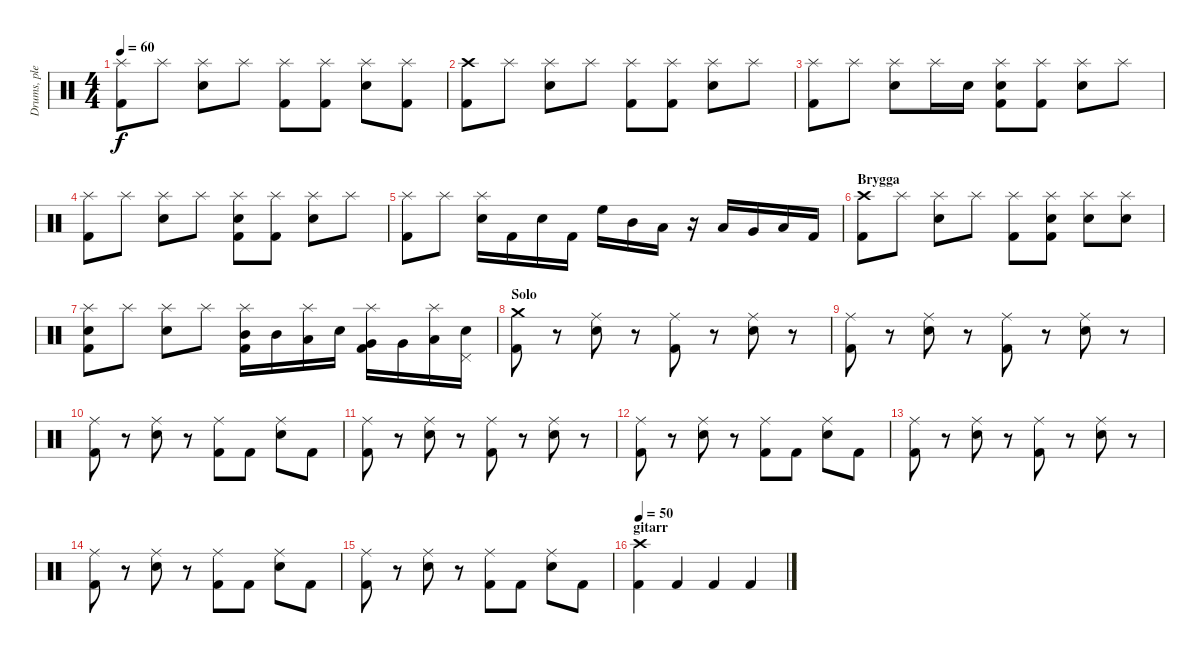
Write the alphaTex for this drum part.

\track ("Drums, please" "Drums, ple") {instrument percussion}
\staff {score}
\articulation defaults
\ts (4 4)
\tempo 60
\clef neutral
\ks c
("Kick (hit) 2" "Splash (hit)").8{dy f} "Splash (hit)".8 ("Electric Snare (hit)" "Splash (hit)").8 "Splash (hit)".8 ("Kick (hit) 2" "Splash (hit)").8 ("Kick (hit) 2" "Splash (hit)").8 ("Electric Snare (hit)" "Splash (hit)").8 ("Kick (hit) 2" "Splash (hit)").8 |
("Kick (hit) 2" "Crash high (hit)").8 "Splash (hit)".8 ("Electric Snare (hit)" "Splash (hit)").8 "Splash (hit)".8 ("Kick (hit) 2" "Splash (hit)").8 ("Kick (hit) 2" "Splash (hit)").8 ("Electric Snare (hit)" "Splash (hit)").8 "Splash (hit)".8 |
("Kick (hit) 2" "Splash (hit)").8 "Splash (hit)".8 ("Electric Snare (hit)" "Splash (hit)").8 "Splash (hit)".16 "Electric Snare (hit)".16 ("Kick (hit) 2" "Electric Snare (hit)" "Splash (hit)").8 ("Kick (hit) 2" "Splash (hit)").8 ("Electric Snare (hit)" "Splash (hit)").8 "Splash (hit)".8 |
("Kick (hit) 2" "Splash (hit)").8 "Splash (hit)".8 ("Electric Snare (hit)" "Splash (hit)").8 "Splash (hit)".8 ("Kick (hit) 2" "Electric Snare (hit)" "Splash (hit)").8 ("Kick (hit) 2" "Splash (hit)").8 ("Electric Snare (hit)" "Splash (hit)").8 "Splash (hit)".8 |
("Kick (hit) 2" "Splash (hit)").8 "Splash (hit)".8 ("Electric Snare (hit)" "Splash (hit)").16 "Kick (hit) 2".16 "Electric Snare (hit)".16 "Kick (hit) 2".16 "High Floor Tom (hit)".16 "Mid Tom (hit)".16 "Low Tom (hit)".16 r.16 "Low Tom (hit)".16 "Very Low Tom (hit)".16 "Low Floor Tom (hit)".16 "Kick (hit) 2".16 |
\section ("" "Brygga")
("Kick (hit) 2" "Crash high (hit)").8 "Splash (hit)".8 ("Electric Snare (hit)" "Splash (hit)").8 "Splash (hit)".8 ("Kick (hit) 2" "Splash (hit)").8 ("Kick (hit) 2" "Electric Snare (hit)" "Splash (hit)").8 ("Electric Snare (hit)" "Splash (hit)").8 ("Electric Snare (hit)" "Splash (hit)").8 |
("Kick (hit) 2" "Electric Snare (hit)" "Splash (hit)").8 "Splash (hit)".8 ("Electric Snare (hit)" "Splash (hit)").8 "Splash (hit)".8 ("Kick (hit) 2" "Mid Tom (hit)" "Splash (hit)").16 "Mid Tom (hit)".16 ("Low Tom (hit)" "Splash (hit)").16 "Electric Snare (hit)".16 ("Kick (hit) 2" "Very Low Tom (hit)" "Splash (hit)").16 "Very Low Tom (hit)".16 ("Low Floor Tom (hit)" "Splash (hit)").16 ("Electric Snare (hit)" "Pedal Hi-Hat (hit)").16 |
\section ("" "Solo")
("Kick (hit) 2" "Crash medium (hit)").8 r.8 ("Electric Snare (hit)" "Ride (middle)").8 r.8 ("Kick (hit) 2" "Ride (middle)").8 r.8 ("Electric Snare (hit)" "Ride (middle)").8 r.8 |
("Kick (hit) 2" "Ride (middle)").8 r.8 ("Electric Snare (hit)" "Ride (middle)").8 r.8 ("Kick (hit) 2" "Ride (middle)").8 r.8 ("Electric Snare (hit)" "Ride (middle)").8 r.8 |
("Kick (hit) 2" "Ride (middle)").8 r.8 ("Electric Snare (hit)" "Ride (middle)").8 r.8 ("Kick (hit) 2" "Ride (middle)").8 "Kick (hit) 2".8 ("Electric Snare (hit)" "Ride (middle)").8 "Kick (hit) 2".8 |
("Kick (hit) 2" "Ride (middle)").8 r.8 ("Electric Snare (hit)" "Ride (middle)").8 r.8 ("Kick (hit) 2" "Ride (middle)").8 r.8 ("Electric Snare (hit)" "Ride (middle)").8 r.8 |
("Kick (hit) 2" "Ride (middle)").8 r.8 ("Electric Snare (hit)" "Ride (middle)").8 r.8 ("Kick (hit) 2" "Ride (middle)").8 "Kick (hit) 2".8 ("Electric Snare (hit)" "Ride (middle)").8 "Kick (hit) 2".8 |
("Kick (hit) 2" "Ride (middle)").8 r.8 ("Electric Snare (hit)" "Ride (middle)").8 r.8 ("Kick (hit) 2" "Ride (middle)").8 r.8 ("Electric Snare (hit)" "Ride (middle)").8 r.8 |
("Kick (hit) 2" "Ride (middle)").8 r.8 ("Electric Snare (hit)" "Ride (middle)").8 r.8 ("Kick (hit) 2" "Ride (middle)").8 "Kick (hit) 2".8 ("Electric Snare (hit)" "Ride (middle)").8 "Kick (hit) 2".8 |
("Kick (hit) 2" "Ride (middle)").8 r.8 ("Electric Snare (hit)" "Ride (middle)").8 r.8 ("Kick (hit) 2" "Ride (middle)").8 "Kick (hit) 2".8 ("Electric Snare (hit)" "Ride (middle)").8 "Kick (hit) 2".8 |
\section ("" "gitarr")
\tempo 50
("Kick (hit) 2" "Crash high (hit)").4 "Kick (hit) 2".4 "Kick (hit) 2".4 "Kick (hit) 2".4
